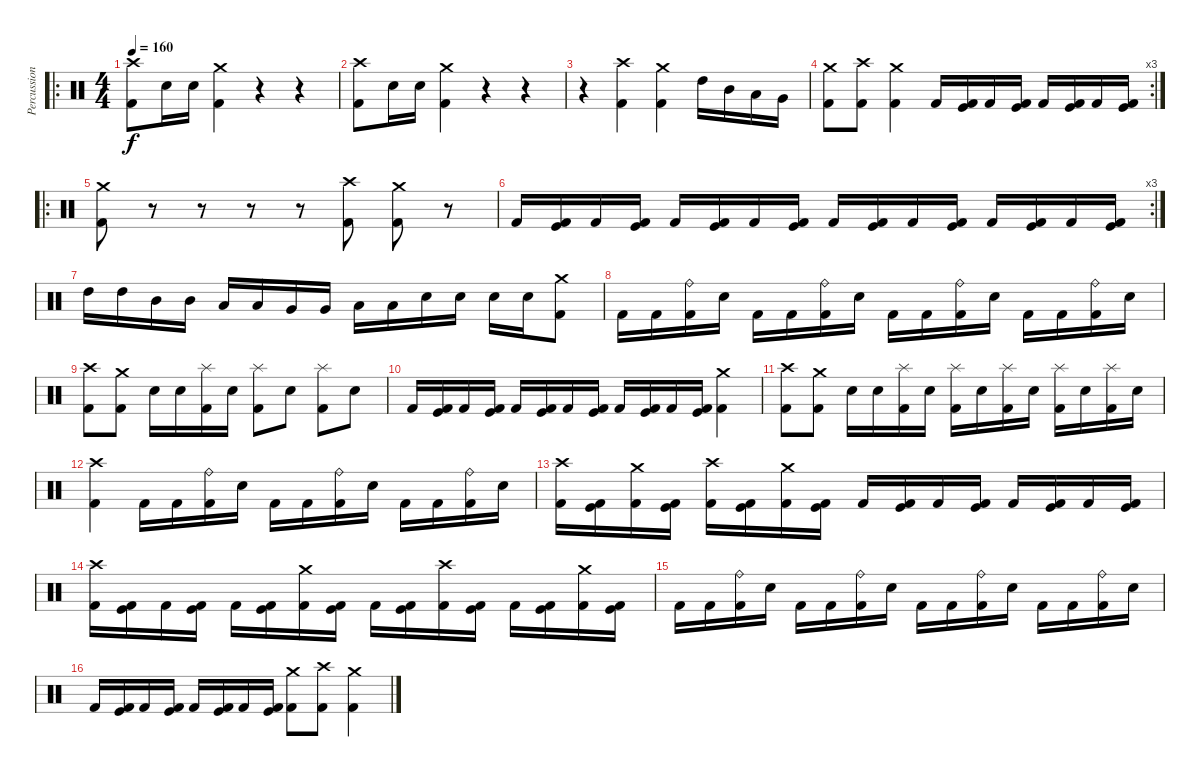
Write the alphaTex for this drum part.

\track ("Percussion" "Percussion") {instrument percussion}
\staff {score}
\articulation defaults
\ro
\ts (4 4)
\tempo 160
\clef neutral
\ks c
("Crash high (hit)" "Kick (hit) 2").8{dy f} "Electric Snare (hit)".16 "Electric Snare (hit)".16 ("Crash medium (hit)" "Kick (hit) 2").4 r.4 r.4 |
("Crash high (hit)" "Kick (hit) 2").8 "Electric Snare (hit)".16 "Electric Snare (hit)".16 ("Crash medium (hit)" "Kick (hit) 2").4 r.4 r.4 |
r.4 ("Crash high (hit)" "Kick (hit) 2").4 ("Crash medium (hit)" "Kick (hit) 2").4 "High Tom (hit)".16 "Mid Tom (hit)".16 "Low Tom (hit)".16 "Very Low Tom (hit)".16 |
\rc 3
("Crash medium (hit)" "Kick (hit) 2").8 ("Crash high (hit)" "Kick (hit) 2").8 ("Crash medium (hit)" "Kick (hit) 2").4 "Kick (hit) 2".16 ("Kick (hit)" "Kick (hit) 2").16 "Kick (hit) 2".16 ("Kick (hit)" "Kick (hit) 2").16 "Kick (hit) 2".16 ("Kick (hit)" "Kick (hit) 2").16 "Kick (hit) 2".16 ("Kick (hit)" "Kick (hit) 2").16 |
\ro
("Crash medium (hit)" "Kick (hit) 2").8 r.8 r.8 r.8 r.8 ("Crash high (hit)" "Kick (hit) 2").8 ("Crash medium (hit)" "Kick (hit) 2").8 r.8 |
\rc 3 "Kick (hit) 2".16
("Kick (hit)" "Kick (hit) 2").16 "Kick (hit) 2".16 ("Kick (hit)" "Kick (hit) 2").16 "Kick (hit) 2".16 ("Kick (hit)" "Kick (hit) 2").16 "Kick (hit) 2".16 ("Kick (hit)" "Kick (hit) 2").16 "Kick (hit) 2".16 ("Kick (hit)" "Kick (hit) 2").16 "Kick (hit) 2".16 ("Kick (hit)" "Kick (hit) 2").16 "Kick (hit) 2".16 ("Kick (hit)" "Kick (hit) 2").16 "Kick (hit) 2".16 ("Kick (hit)" "Kick (hit) 2").16 |
"High Tom (hit)".16 "High Tom (hit)".16 "Mid Tom (hit)".16 "Mid Tom (hit)".16 "Low Tom (hit)".16 "Low Tom (hit)".16 "Very Low Tom (hit)".16 "Very Low Tom (hit)".16 "Low Floor Tom (hit)".16 "Low Floor Tom (hit)".16 "Electric Snare (hit)".16 "Electric Snare (hit)".16 "Electric Snare (hit)".16 "Electric Snare (hit)".16 ("Crash medium (hit)" "Kick (hit) 2").8 |
"Kick (hit) 2".16 "Kick (hit) 2".16 ("Ride (bell)" "Kick (hit) 2").16 "Electric Snare (hit)".16 "Kick (hit) 2".16 "Kick (hit) 2".16 ("Ride (bell)" "Kick (hit) 2").16 "Electric Snare (hit)".16 "Kick (hit) 2".16 "Kick (hit) 2".16 ("Ride (bell)" "Kick (hit) 2").16 "Electric Snare (hit)".16 "Kick (hit) 2".16 "Kick (hit) 2".16 ("Ride (bell)" "Kick (hit) 2").16 "Electric Snare (hit)".16 |
("Crash high (hit)" "Kick (hit) 2").8 ("Crash medium (hit)" "Kick (hit) 2").8 "Electric Snare (hit)".16 "Electric Snare (hit)".16 ("Splash (hit)" "Kick (hit) 2").16 "Electric Snare (hit)".16 ("Splash (hit)" "Kick (hit) 2").8 "Electric Snare (hit)".8 ("Splash (hit)" "Kick (hit) 2").8 "Electric Snare (hit)".8 |
"Kick (hit) 2".16 ("Kick (hit)" "Kick (hit) 2").16 "Kick (hit) 2".16 ("Kick (hit)" "Kick (hit) 2").16 "Kick (hit) 2".16 ("Kick (hit)" "Kick (hit) 2").16 "Kick (hit) 2".16 ("Kick (hit)" "Kick (hit) 2").16 "Kick (hit) 2".16 ("Kick (hit)" "Kick (hit) 2").16 "Kick (hit) 2".16 ("Kick (hit)" "Kick (hit) 2").16 ("Crash medium (hit)" "Kick (hit) 2").4 |
("Crash high (hit)" "Kick (hit) 2").8 ("Crash medium (hit)" "Kick (hit) 2").8 "Electric Snare (hit)".16 "Electric Snare (hit)".16 ("Splash (hit)" "Kick (hit) 2").16 "Electric Snare (hit)".16 ("Splash (hit)" "Kick (hit) 2").16 "Electric Snare (hit)".16 ("Splash (hit)" "Kick (hit) 2").16 "Electric Snare (hit)".16 ("Splash (hit)" "Kick (hit) 2").16 "Electric Snare (hit)".16 ("Splash (hit)" "Kick (hit) 2").16 "Electric Snare (hit)".16 |
("Crash high (hit)" "Kick (hit) 2").4 "Kick (hit) 2".16 "Kick (hit) 2".16 ("Ride (bell)" "Kick (hit) 2").16 "Electric Snare (hit)".16 "Kick (hit) 2".16 "Kick (hit) 2".16 ("Ride (bell)" "Kick (hit) 2").16 "Electric Snare (hit)".16 "Kick (hit) 2".16 "Kick (hit) 2".16 ("Ride (bell)" "Kick (hit) 2").16 "Electric Snare (hit)".16 |
("Crash high (hit)" "Kick (hit) 2").16 ("Kick (hit)" "Kick (hit) 2").16 ("Crash medium (hit)" "Kick (hit) 2").16 ("Kick (hit)" "Kick (hit) 2").16 ("Crash high (hit)" "Kick (hit) 2").16 ("Kick (hit)" "Kick (hit) 2").16 ("Crash medium (hit)" "Kick (hit) 2").16 ("Kick (hit)" "Kick (hit) 2").16 "Kick (hit) 2".16 ("Kick (hit)" "Kick (hit) 2").16 "Kick (hit) 2".16 ("Kick (hit)" "Kick (hit) 2").16 "Kick (hit) 2".16 ("Kick (hit)" "Kick (hit) 2").16 "Kick (hit) 2".16 ("Kick (hit)" "Kick (hit) 2").16 |
("Crash high (hit)" "Kick (hit) 2").16 ("Kick (hit)" "Kick (hit) 2").16 "Kick (hit) 2".16 ("Kick (hit)" "Kick (hit) 2").16 "Kick (hit) 2".16 ("Kick (hit)" "Kick (hit) 2").16 ("Crash medium (hit)" "Kick (hit) 2").16 ("Kick (hit)" "Kick (hit) 2").16 "Kick (hit) 2".16 ("Kick (hit)" "Kick (hit) 2").16 ("Crash high (hit)" "Kick (hit) 2").16 ("Kick (hit)" "Kick (hit) 2").16 "Kick (hit) 2".16 ("Kick (hit)" "Kick (hit) 2").16 ("Crash medium (hit)" "Kick (hit) 2").16 ("Kick (hit)" "Kick (hit) 2").16 |
"Kick (hit) 2".16 "Kick (hit) 2".16 ("Ride (bell)" "Kick (hit) 2").16 "Electric Snare (hit)".16 "Kick (hit) 2".16 "Kick (hit) 2".16 ("Ride (bell)" "Kick (hit) 2").16 "Electric Snare (hit)".16 "Kick (hit) 2".16 "Kick (hit) 2".16 ("Ride (bell)" "Kick (hit) 2").16 "Electric Snare (hit)".16 "Kick (hit) 2".16 "Kick (hit) 2".16 ("Ride (bell)" "Kick (hit) 2").16 "Electric Snare (hit)".16 |
"Kick (hit) 2".16 ("Kick (hit)" "Kick (hit) 2").16 "Kick (hit) 2".16 ("Kick (hit)" "Kick (hit) 2").16 "Kick (hit) 2".16 ("Kick (hit)" "Kick (hit) 2").16 "Kick (hit) 2".16 ("Kick (hit)" "Kick (hit) 2").16 ("Crash medium (hit)" "Kick (hit) 2").8 ("Crash high (hit)" "Kick (hit) 2").8 ("Crash medium (hit)" "Kick (hit) 2").4
